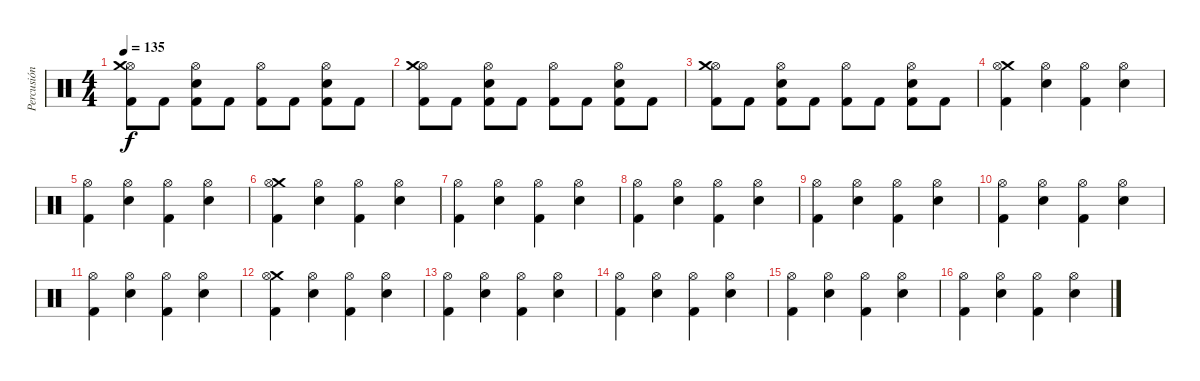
\track ("Percusión" "Percusión") {instrument percussion}
\staff {score}
\articulation defaults
\ts (4 4)
\tempo 135
\clef neutral
\ks c
("Hi-Hat (open)" "Kick (hit) 2" "Crash medium (hit)").8{dy f} "Kick (hit) 2".8 ("Hi-Hat (open)" "Electric Snare (hit)" "Kick (hit) 2").8 "Kick (hit) 2".8 ("Hi-Hat (open)" "Kick (hit) 2").8 "Kick (hit) 2".8 ("Hi-Hat (open)" "Electric Snare (hit)" "Kick (hit) 2").8 "Kick (hit) 2".8 |
("Hi-Hat (open)" "Kick (hit) 2" "Crash medium (hit)").8 "Kick (hit) 2".8 ("Hi-Hat (open)" "Electric Snare (hit)" "Kick (hit) 2").8 "Kick (hit) 2".8 ("Hi-Hat (open)" "Kick (hit) 2").8 "Kick (hit) 2".8 ("Hi-Hat (open)" "Electric Snare (hit)" "Kick (hit) 2").8 "Kick (hit) 2".8 |
("Hi-Hat (open)" "Kick (hit) 2" "Crash medium (hit)").8 "Kick (hit) 2".8 ("Hi-Hat (open)" "Electric Snare (hit)" "Kick (hit) 2").8 "Kick (hit) 2".8 ("Hi-Hat (open)" "Kick (hit) 2").8 "Kick (hit) 2".8 ("Hi-Hat (open)" "Electric Snare (hit)" "Kick (hit) 2").8 "Kick (hit) 2".8 |
("Crash medium (hit)" "Hi-Hat (open)" "Kick (hit) 2").4 ("Hi-Hat (open)" "Electric Snare (hit)").4 ("Hi-Hat (open)" "Kick (hit) 2").4 ("Hi-Hat (open)" "Electric Snare (hit)").4 |
("Hi-Hat (open)" "Kick (hit) 2").4 ("Hi-Hat (open)" "Electric Snare (hit)").4 ("Hi-Hat (open)" "Kick (hit) 2").4 ("Hi-Hat (open)" "Electric Snare (hit)").4 |
("Crash medium (hit)" "Hi-Hat (open)" "Kick (hit) 2").4 ("Hi-Hat (open)" "Electric Snare (hit)").4 ("Hi-Hat (open)" "Kick (hit) 2").4 ("Hi-Hat (open)" "Electric Snare (hit)").4 |
("Hi-Hat (open)" "Kick (hit) 2").4 ("Hi-Hat (open)" "Electric Snare (hit)").4 ("Hi-Hat (open)" "Kick (hit) 2").4 ("Hi-Hat (open)" "Electric Snare (hit)").4 |
("Hi-Hat (open)" "Kick (hit) 2").4 ("Hi-Hat (open)" "Electric Snare (hit)").4 ("Hi-Hat (open)" "Kick (hit) 2").4 ("Hi-Hat (open)" "Electric Snare (hit)").4 |
("Hi-Hat (open)" "Kick (hit) 2").4 ("Hi-Hat (open)" "Electric Snare (hit)").4 ("Hi-Hat (open)" "Kick (hit) 2").4 ("Hi-Hat (open)" "Electric Snare (hit)").4 |
("Hi-Hat (open)" "Kick (hit) 2").4 ("Hi-Hat (open)" "Electric Snare (hit)").4 ("Hi-Hat (open)" "Kick (hit) 2").4 ("Hi-Hat (open)" "Electric Snare (hit)").4 |
("Hi-Hat (open)" "Kick (hit) 2").4 ("Hi-Hat (open)" "Electric Snare (hit)").4 ("Hi-Hat (open)" "Kick (hit) 2").4 ("Hi-Hat (open)" "Electric Snare (hit)").4 |
("Crash medium (hit)" "Hi-Hat (open)" "Kick (hit) 2").4 ("Hi-Hat (open)" "Electric Snare (hit)").4 ("Hi-Hat (open)" "Kick (hit) 2").4 ("Hi-Hat (open)" "Electric Snare (hit)").4 |
("Hi-Hat (open)" "Kick (hit) 2").4 ("Hi-Hat (open)" "Electric Snare (hit)").4 ("Hi-Hat (open)" "Kick (hit) 2").4 ("Hi-Hat (open)" "Electric Snare (hit)").4 |
("Hi-Hat (open)" "Kick (hit) 2").4 ("Hi-Hat (open)" "Electric Snare (hit)").4 ("Hi-Hat (open)" "Kick (hit) 2").4 ("Hi-Hat (open)" "Electric Snare (hit)").4 |
("Hi-Hat (open)" "Kick (hit) 2").4 ("Hi-Hat (open)" "Electric Snare (hit)").4 ("Hi-Hat (open)" "Kick (hit) 2").4 ("Hi-Hat (open)" "Electric Snare (hit)").4 |
("Hi-Hat (open)" "Kick (hit) 2").4 ("Hi-Hat (open)" "Electric Snare (hit)").4 ("Hi-Hat (open)" "Kick (hit) 2").4 ("Hi-Hat (open)" "Electric Snare (hit)").4
